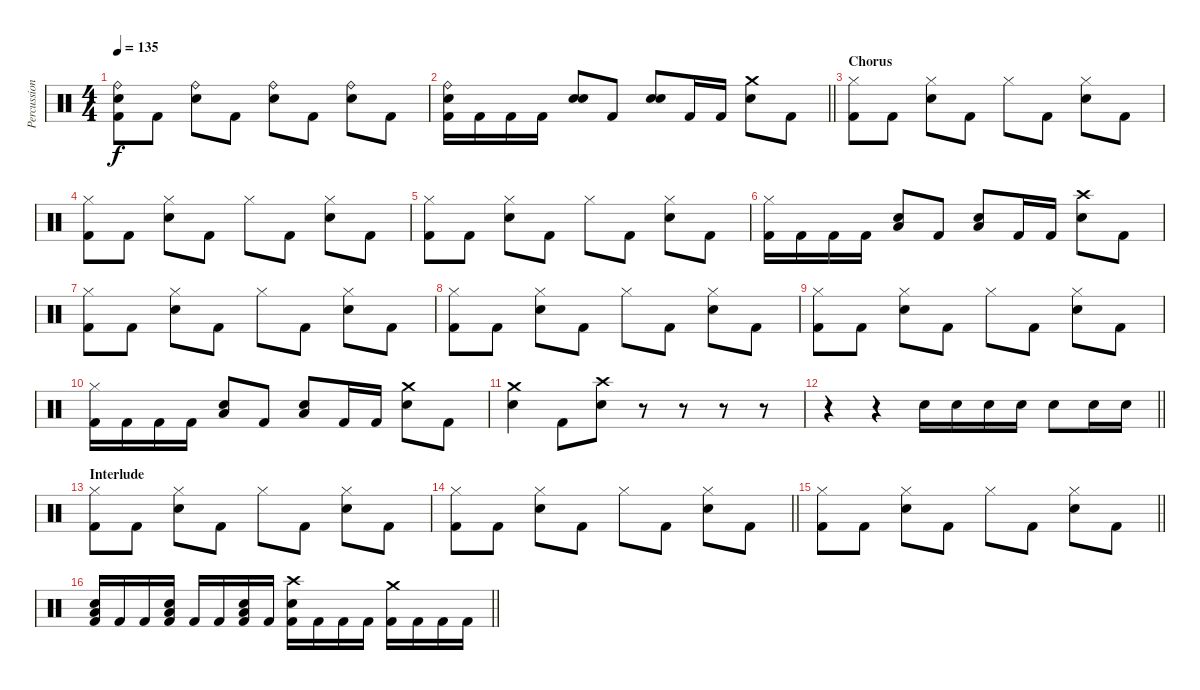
\track ("Percussion" "Percussion") {instrument percussion}
\staff {score}
\articulation defaults
\ts (4 4)
\tempo 135
\clef neutral
\ks c
("Ride (bell)" "Electric Snare (hit)" "Kick (hit) 2").8{dy f} "Kick (hit) 2".8 ("Ride (bell)" "Electric Snare (hit)").8 "Kick (hit) 2".8 ("Ride (bell)" "Electric Snare (hit)").8 "Kick (hit) 2".8 ("Ride (bell)" "Electric Snare (hit)").8 "Kick (hit) 2".8 |
\barLineRight lightlight
("Ride (bell)" "Electric Snare (hit)" "Kick (hit) 2").16 "Kick (hit) 2".16 "Kick (hit) 2".16 "Kick (hit) 2".16 ("Electric Snare (hit)" "Electric Snare (hit)").8 "Kick (hit) 2".8 ("Electric Snare (hit)" "Electric Snare (hit)").8 "Kick (hit) 2".16 "Kick (hit) 2".16 ("Crash medium (hit)" "Electric Snare (hit)").8 "Kick (hit) 2".8 |
\section ("" "Chorus")
("Hi-Hat (closed)" "Kick (hit) 2").8 "Kick (hit) 2".8 ("Hi-Hat (closed)" "Electric Snare (hit)").8 "Kick (hit) 2".8 "Hi-Hat (closed)".8 "Kick (hit) 2".8 ("Hi-Hat (closed)" "Electric Snare (hit)").8 "Kick (hit) 2".8 |
("Hi-Hat (closed)" "Kick (hit) 2").8 "Kick (hit) 2".8 ("Hi-Hat (closed)" "Electric Snare (hit)").8 "Kick (hit) 2".8 "Hi-Hat (closed)".8 "Kick (hit) 2".8 ("Hi-Hat (closed)" "Electric Snare (hit)").8 "Kick (hit) 2".8 |
("Hi-Hat (closed)" "Kick (hit) 2").8 "Kick (hit) 2".8 ("Hi-Hat (closed)" "Electric Snare (hit)").8 "Kick (hit) 2".8 "Hi-Hat (closed)".8 "Kick (hit) 2".8 ("Hi-Hat (closed)" "Electric Snare (hit)").8 "Kick (hit) 2".8 |
("Hi-Hat (closed)" "Kick (hit) 2").16 "Kick (hit) 2".16 "Kick (hit) 2".16 "Kick (hit) 2".16 ("Electric Snare (hit)" "Low Floor Tom (hit)").8 "Kick (hit) 2".8 ("Electric Snare (hit)" "Low Floor Tom (hit)").8 "Kick (hit) 2".16 "Kick (hit) 2".16 ("Crash high (hit)" "Electric Snare (hit)").8 "Kick (hit) 2".8 |
("Hi-Hat (closed)" "Kick (hit) 2").8 "Kick (hit) 2".8 ("Hi-Hat (closed)" "Electric Snare (hit)").8 "Kick (hit) 2".8 "Hi-Hat (closed)".8 "Kick (hit) 2".8 ("Hi-Hat (closed)" "Electric Snare (hit)").8 "Kick (hit) 2".8 |
("Hi-Hat (closed)" "Kick (hit) 2").8 "Kick (hit) 2".8 ("Hi-Hat (closed)" "Electric Snare (hit)").8 "Kick (hit) 2".8 "Hi-Hat (closed)".8 "Kick (hit) 2".8 ("Hi-Hat (closed)" "Electric Snare (hit)").8 "Kick (hit) 2".8 |
("Hi-Hat (closed)" "Kick (hit) 2").8 "Kick (hit) 2".8 ("Hi-Hat (closed)" "Electric Snare (hit)").8 "Kick (hit) 2".8 "Hi-Hat (closed)".8 "Kick (hit) 2".8 ("Hi-Hat (closed)" "Electric Snare (hit)").8 "Kick (hit) 2".8 |
("Hi-Hat (closed)" "Kick (hit) 2").16 "Kick (hit) 2".16 "Kick (hit) 2".16 "Kick (hit) 2".16 ("Electric Snare (hit)" "Low Floor Tom (hit)").8 "Kick (hit) 2".8 ("Electric Snare (hit)" "Low Floor Tom (hit)").8 "Kick (hit) 2".16 "Kick (hit) 2".16 ("Crash medium (hit)" "Electric Snare (hit)").8 "Kick (hit) 2".8 |
("Crash medium (hit)" "Electric Snare (hit)").4 "Kick (hit) 2".8 ("Crash high (hit)" "Electric Snare (hit)").8 r.8 r.8 r.8 r.8 |
\barLineRight lightlight
r.4 r.4 "Electric Snare (hit)".16 "Electric Snare (hit)".16 "Electric Snare (hit)".16 "Electric Snare (hit)".16 "Electric Snare (hit)".8 "Electric Snare (hit)".16 "Electric Snare (hit)".16 |
\section ("" "Interlude")
("Hi-Hat (closed)" "Kick (hit) 2").8 "Kick (hit) 2".8 ("Hi-Hat (closed)" "Electric Snare (hit)").8 "Kick (hit) 2".8 "Hi-Hat (closed)".8 "Kick (hit) 2".8 ("Hi-Hat (closed)" "Electric Snare (hit)").8 "Kick (hit) 2".8 |
\barLineRight lightlight
("Hi-Hat (closed)" "Kick (hit) 2").8 "Kick (hit) 2".8 ("Hi-Hat (closed)" "Electric Snare (hit)").8 "Kick (hit) 2".8 "Hi-Hat (closed)".8 "Kick (hit) 2".8 ("Hi-Hat (closed)" "Electric Snare (hit)").8 "Kick (hit) 2".8 |
\barLineRight lightlight
("Hi-Hat (closed)" "Kick (hit) 2").8 "Kick (hit) 2".8 ("Hi-Hat (closed)" "Electric Snare (hit)").8 "Kick (hit) 2".8 "Hi-Hat (closed)".8 "Kick (hit) 2".8 ("Hi-Hat (closed)" "Electric Snare (hit)").8 "Kick (hit) 2".8 |
\barLineRight lightlight
("Electric Snare (hit)" "Low Floor Tom (hit)" "Kick (hit) 2").16 "Kick (hit) 2".16 "Kick (hit) 2".16 ("Electric Snare (hit)" "Low Floor Tom (hit)" "Kick (hit) 2").16 "Kick (hit) 2".16 "Kick (hit) 2".16 ("Electric Snare (hit)" "Low Floor Tom (hit)" "Kick (hit) 2").16 "Kick (hit) 2".16 ("Crash high (hit)" "Electric Snare (hit)" "Kick (hit) 2").16 "Kick (hit) 2".16 "Kick (hit) 2".16 "Kick (hit) 2".16 ("Crash medium (hit)" "Kick (hit) 2").16 "Kick (hit) 2".16 "Kick (hit) 2".16 "Kick (hit) 2".16
